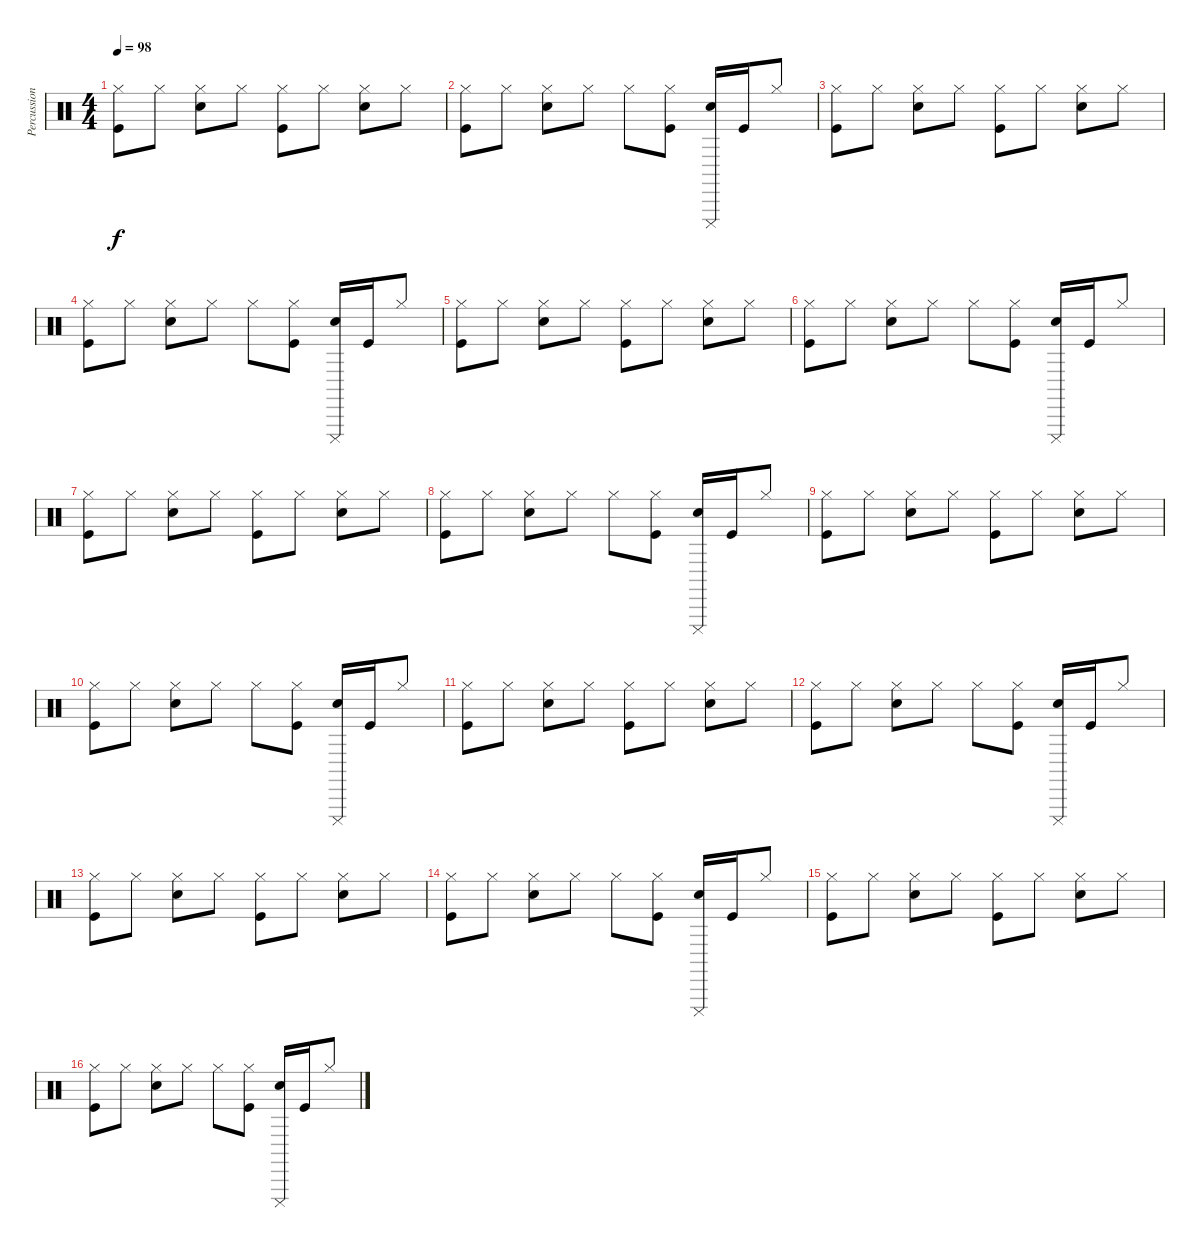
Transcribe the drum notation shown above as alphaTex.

\track ("Percussion" "Percussion") {instrument percussion}
\staff {score}
\articulation defaults
\ts (4 4)
\tempo 98
\clef neutral
\ks c
("Kick (hit)" "Hi-Hat (closed)").8{dy f} "Hi-Hat (closed)".8 ("Electric Snare (hit)" "Hi-Hat (closed)").8 "Hi-Hat (closed)".8 ("Kick (hit)" "Hi-Hat (closed)").8 "Hi-Hat (closed)".8 ("Electric Snare (hit)" "Hi-Hat (closed)").8 "Hi-Hat (closed)".8 |
("Kick (hit)" "Hi-Hat (closed)").8 "Hi-Hat (closed)".8 ("Electric Snare (hit)" "Hi-Hat (closed)").8 "Hi-Hat (closed)".8 "Hi-Hat (closed)".8 ("Kick (hit)" "Hi-Hat (closed)").8 ("Electric Snare (hit)" "Cuica (mute)").16 "Kick (hit)".16 "Hi-Hat (closed)".8 |
("Kick (hit)" "Hi-Hat (closed)").8 "Hi-Hat (closed)".8 ("Electric Snare (hit)" "Hi-Hat (closed)").8 "Hi-Hat (closed)".8 ("Kick (hit)" "Hi-Hat (closed)").8 "Hi-Hat (closed)".8 ("Electric Snare (hit)" "Hi-Hat (closed)").8 "Hi-Hat (closed)".8 |
("Kick (hit)" "Hi-Hat (closed)").8 "Hi-Hat (closed)".8 ("Electric Snare (hit)" "Hi-Hat (closed)").8 "Hi-Hat (closed)".8 "Hi-Hat (closed)".8 ("Kick (hit)" "Hi-Hat (closed)").8 ("Electric Snare (hit)" "Cuica (mute)").16 "Kick (hit)".16 "Hi-Hat (closed)".8 |
("Kick (hit)" "Hi-Hat (closed)").8 "Hi-Hat (closed)".8 ("Electric Snare (hit)" "Hi-Hat (closed)").8 "Hi-Hat (closed)".8 ("Kick (hit)" "Hi-Hat (closed)").8 "Hi-Hat (closed)".8 ("Electric Snare (hit)" "Hi-Hat (closed)").8 "Hi-Hat (closed)".8 |
("Kick (hit)" "Hi-Hat (closed)").8 "Hi-Hat (closed)".8 ("Electric Snare (hit)" "Hi-Hat (closed)").8 "Hi-Hat (closed)".8 "Hi-Hat (closed)".8 ("Kick (hit)" "Hi-Hat (closed)").8 ("Electric Snare (hit)" "Cuica (mute)").16 "Kick (hit)".16 "Hi-Hat (closed)".8 |
("Kick (hit)" "Hi-Hat (closed)").8 "Hi-Hat (closed)".8 ("Electric Snare (hit)" "Hi-Hat (closed)").8 "Hi-Hat (closed)".8 ("Kick (hit)" "Hi-Hat (closed)").8 "Hi-Hat (closed)".8 ("Electric Snare (hit)" "Hi-Hat (closed)").8 "Hi-Hat (closed)".8 |
("Kick (hit)" "Hi-Hat (closed)").8 "Hi-Hat (closed)".8 ("Electric Snare (hit)" "Hi-Hat (closed)").8 "Hi-Hat (closed)".8 "Hi-Hat (closed)".8 ("Kick (hit)" "Hi-Hat (closed)").8 ("Electric Snare (hit)" "Cuica (mute)").16 "Kick (hit)".16 "Hi-Hat (closed)".8 |
("Kick (hit)" "Hi-Hat (closed)").8 "Hi-Hat (closed)".8 ("Electric Snare (hit)" "Hi-Hat (closed)").8 "Hi-Hat (closed)".8 ("Kick (hit)" "Hi-Hat (closed)").8 "Hi-Hat (closed)".8 ("Electric Snare (hit)" "Hi-Hat (closed)").8 "Hi-Hat (closed)".8 |
("Kick (hit)" "Hi-Hat (closed)").8 "Hi-Hat (closed)".8 ("Electric Snare (hit)" "Hi-Hat (closed)").8 "Hi-Hat (closed)".8 "Hi-Hat (closed)".8 ("Kick (hit)" "Hi-Hat (closed)").8 ("Electric Snare (hit)" "Cuica (mute)").16 "Kick (hit)".16 "Hi-Hat (closed)".8 |
("Kick (hit)" "Hi-Hat (closed)").8 "Hi-Hat (closed)".8 ("Electric Snare (hit)" "Hi-Hat (closed)").8 "Hi-Hat (closed)".8 ("Kick (hit)" "Hi-Hat (closed)").8 "Hi-Hat (closed)".8 ("Electric Snare (hit)" "Hi-Hat (closed)").8 "Hi-Hat (closed)".8 |
("Kick (hit)" "Hi-Hat (closed)").8 "Hi-Hat (closed)".8 ("Electric Snare (hit)" "Hi-Hat (closed)").8 "Hi-Hat (closed)".8 "Hi-Hat (closed)".8 ("Kick (hit)" "Hi-Hat (closed)").8 ("Electric Snare (hit)" "Cuica (mute)").16 "Kick (hit)".16 "Hi-Hat (closed)".8 |
("Kick (hit)" "Hi-Hat (closed)").8 "Hi-Hat (closed)".8 ("Electric Snare (hit)" "Hi-Hat (closed)").8 "Hi-Hat (closed)".8 ("Kick (hit)" "Hi-Hat (closed)").8 "Hi-Hat (closed)".8 ("Electric Snare (hit)" "Hi-Hat (closed)").8 "Hi-Hat (closed)".8 |
("Kick (hit)" "Hi-Hat (closed)").8 "Hi-Hat (closed)".8 ("Electric Snare (hit)" "Hi-Hat (closed)").8 "Hi-Hat (closed)".8 "Hi-Hat (closed)".8 ("Kick (hit)" "Hi-Hat (closed)").8 ("Electric Snare (hit)" "Cuica (mute)").16 "Kick (hit)".16 "Hi-Hat (closed)".8 |
("Kick (hit)" "Hi-Hat (closed)").8 "Hi-Hat (closed)".8 ("Electric Snare (hit)" "Hi-Hat (closed)").8 "Hi-Hat (closed)".8 ("Kick (hit)" "Hi-Hat (closed)").8 "Hi-Hat (closed)".8 ("Electric Snare (hit)" "Hi-Hat (closed)").8 "Hi-Hat (closed)".8 |
("Kick (hit)" "Hi-Hat (closed)").8 "Hi-Hat (closed)".8 ("Electric Snare (hit)" "Hi-Hat (closed)").8 "Hi-Hat (closed)".8 "Hi-Hat (closed)".8 ("Kick (hit)" "Hi-Hat (closed)").8 ("Electric Snare (hit)" "Cuica (mute)").16 "Kick (hit)".16 "Hi-Hat (closed)".8
